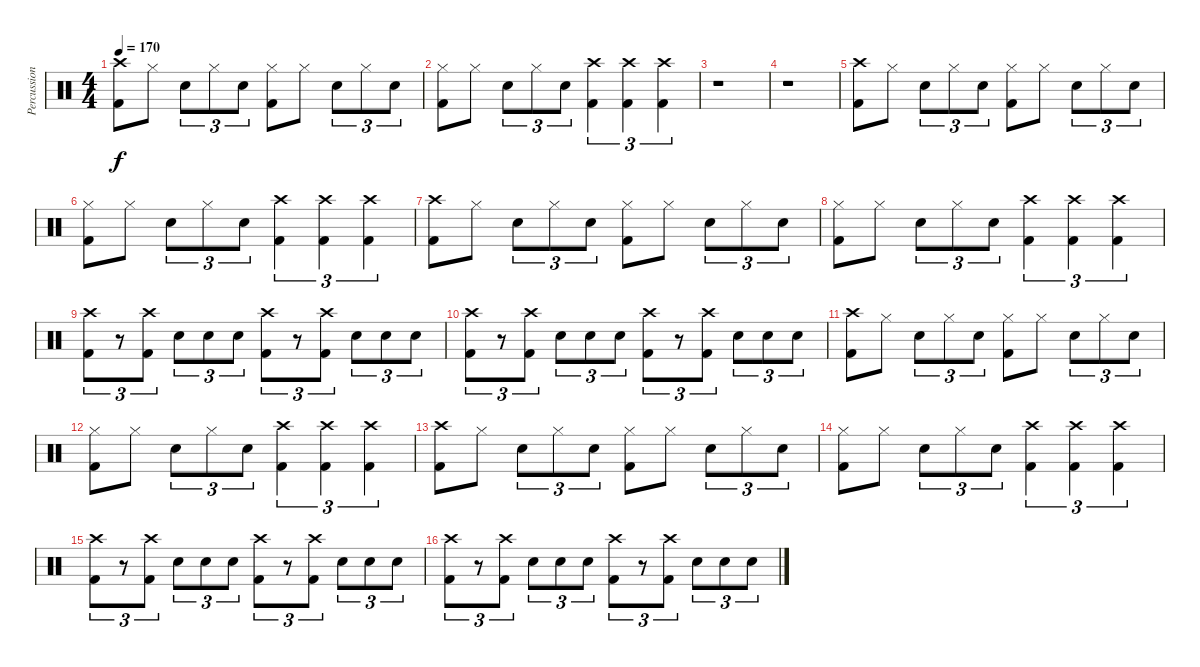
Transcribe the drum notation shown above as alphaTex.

\track ("Percussion" "Percussion") {instrument percussion}
\staff {score}
\articulation defaults
\ts (4 4)
\tempo 170
\clef neutral
\ks c
("Crash high (hit)" "Kick (hit) 2").8{dy f} "Hi-Hat (closed)".8 "Snare (hit) 2".8{tu (3 2)} "Hi-Hat (closed)".8{tu (3 2)} "Snare (hit) 2".8{tu (3 2)} ("Hi-Hat (closed)" "Kick (hit) 2").8 "Hi-Hat (closed)".8 "Snare (hit) 2".8{tu (3 2)} "Hi-Hat (closed)".8{tu (3 2)} "Snare (hit) 2".8{tu (3 2)} |
("Hi-Hat (closed)" "Kick (hit) 2").8 "Hi-Hat (closed)".8 "Snare (hit) 2".8{tu (3 2)} "Hi-Hat (closed)".8{tu (3 2)} "Snare (hit) 2".8{tu (3 2)} ("Crash high (hit)" "Kick (hit) 2").4{tu (3 2)} ("Crash high (hit)" "Kick (hit) 2").4{tu (3 2)} ("Crash high (hit)" "Kick (hit) 2").4{tu (3 2)} |
r.1 |
r.1 |
("Crash high (hit)" "Kick (hit) 2").8 "Hi-Hat (closed)".8 "Snare (hit) 2".8{tu (3 2)} "Hi-Hat (closed)".8{tu (3 2)} "Snare (hit) 2".8{tu (3 2)} ("Hi-Hat (closed)" "Kick (hit) 2").8 "Hi-Hat (closed)".8 "Snare (hit) 2".8{tu (3 2)} "Hi-Hat (closed)".8{tu (3 2)} "Snare (hit) 2".8{tu (3 2)} |
("Hi-Hat (closed)" "Kick (hit) 2").8 "Hi-Hat (closed)".8 "Snare (hit) 2".8{tu (3 2)} "Hi-Hat (closed)".8{tu (3 2)} "Snare (hit) 2".8{tu (3 2)} ("Crash high (hit)" "Kick (hit) 2").4{tu (3 2)} ("Crash high (hit)" "Kick (hit) 2").4{tu (3 2)} ("Crash high (hit)" "Kick (hit) 2").4{tu (3 2)} |
("Crash high (hit)" "Kick (hit) 2").8 "Hi-Hat (closed)".8 "Snare (hit) 2".8{tu (3 2)} "Hi-Hat (closed)".8{tu (3 2)} "Snare (hit) 2".8{tu (3 2)} ("Hi-Hat (closed)" "Kick (hit) 2").8 "Hi-Hat (closed)".8 "Snare (hit) 2".8{tu (3 2)} "Hi-Hat (closed)".8{tu (3 2)} "Snare (hit) 2".8{tu (3 2)} |
("Hi-Hat (closed)" "Kick (hit) 2").8 "Hi-Hat (closed)".8 "Snare (hit) 2".8{tu (3 2)} "Hi-Hat (closed)".8{tu (3 2)} "Snare (hit) 2".8{tu (3 2)} ("Crash high (hit)" "Kick (hit) 2").4{tu (3 2)} ("Crash high (hit)" "Kick (hit) 2").4{tu (3 2)} ("Crash high (hit)" "Kick (hit) 2").4{tu (3 2)} |
("Crash high (hit)" "Kick (hit) 2").8{tu (3 2)} r.8{tu (3 2)} ("Crash high (hit)" "Kick (hit) 2").8{tu (3 2)} "Snare (hit) 2".8{tu (3 2)} "Snare (hit) 2".8{tu (3 2)} "Snare (hit) 2".8{tu (3 2)} ("Crash high (hit)" "Kick (hit) 2").8{tu (3 2)} r.8{tu (3 2)} ("Crash high (hit)" "Kick (hit) 2").8{tu (3 2)} "Snare (hit) 2".8{tu (3 2)} "Snare (hit) 2".8{tu (3 2)} "Snare (hit) 2".8{tu (3 2)} |
("Crash high (hit)" "Kick (hit) 2").8{tu (3 2)} r.8{tu (3 2)} ("Crash high (hit)" "Kick (hit) 2").8{tu (3 2)} "Snare (hit) 2".8{tu (3 2)} "Snare (hit) 2".8{tu (3 2)} "Snare (hit) 2".8{tu (3 2)} ("Crash high (hit)" "Kick (hit) 2").8{tu (3 2)} r.8{tu (3 2)} ("Crash high (hit)" "Kick (hit) 2").8{tu (3 2)} "Snare (hit) 2".8{tu (3 2)} "Snare (hit) 2".8{tu (3 2)} "Snare (hit) 2".8{tu (3 2)} |
("Crash high (hit)" "Kick (hit) 2").8 "Hi-Hat (closed)".8 "Snare (hit) 2".8{tu (3 2)} "Hi-Hat (closed)".8{tu (3 2)} "Snare (hit) 2".8{tu (3 2)} ("Hi-Hat (closed)" "Kick (hit) 2").8 "Hi-Hat (closed)".8 "Snare (hit) 2".8{tu (3 2)} "Hi-Hat (closed)".8{tu (3 2)} "Snare (hit) 2".8{tu (3 2)} |
("Hi-Hat (closed)" "Kick (hit) 2").8 "Hi-Hat (closed)".8 "Snare (hit) 2".8{tu (3 2)} "Hi-Hat (closed)".8{tu (3 2)} "Snare (hit) 2".8{tu (3 2)} ("Crash high (hit)" "Kick (hit) 2").4{tu (3 2)} ("Crash high (hit)" "Kick (hit) 2").4{tu (3 2)} ("Crash high (hit)" "Kick (hit) 2").4{tu (3 2)} |
("Crash high (hit)" "Kick (hit) 2").8 "Hi-Hat (closed)".8 "Snare (hit) 2".8{tu (3 2)} "Hi-Hat (closed)".8{tu (3 2)} "Snare (hit) 2".8{tu (3 2)} ("Hi-Hat (closed)" "Kick (hit) 2").8 "Hi-Hat (closed)".8 "Snare (hit) 2".8{tu (3 2)} "Hi-Hat (closed)".8{tu (3 2)} "Snare (hit) 2".8{tu (3 2)} |
("Hi-Hat (closed)" "Kick (hit) 2").8 "Hi-Hat (closed)".8 "Snare (hit) 2".8{tu (3 2)} "Hi-Hat (closed)".8{tu (3 2)} "Snare (hit) 2".8{tu (3 2)} ("Crash high (hit)" "Kick (hit) 2").4{tu (3 2)} ("Crash high (hit)" "Kick (hit) 2").4{tu (3 2)} ("Crash high (hit)" "Kick (hit) 2").4{tu (3 2)} |
("Crash high (hit)" "Kick (hit) 2").8{tu (3 2)} r.8{tu (3 2)} ("Crash high (hit)" "Kick (hit) 2").8{tu (3 2)} "Snare (hit) 2".8{tu (3 2)} "Snare (hit) 2".8{tu (3 2)} "Snare (hit) 2".8{tu (3 2)} ("Crash high (hit)" "Kick (hit) 2").8{tu (3 2)} r.8{tu (3 2)} ("Crash high (hit)" "Kick (hit) 2").8{tu (3 2)} "Snare (hit) 2".8{tu (3 2)} "Snare (hit) 2".8{tu (3 2)} "Snare (hit) 2".8{tu (3 2)} |
("Crash high (hit)" "Kick (hit) 2").8{tu (3 2)} r.8{tu (3 2)} ("Crash high (hit)" "Kick (hit) 2").8{tu (3 2)} "Snare (hit) 2".8{tu (3 2)} "Snare (hit) 2".8{tu (3 2)} "Snare (hit) 2".8{tu (3 2)} ("Crash high (hit)" "Kick (hit) 2").8{tu (3 2)} r.8{tu (3 2)} ("Crash high (hit)" "Kick (hit) 2").8{tu (3 2)} "Snare (hit) 2".8{tu (3 2)} "Snare (hit) 2".8{tu (3 2)} "Snare (hit) 2".8{tu (3 2)}
